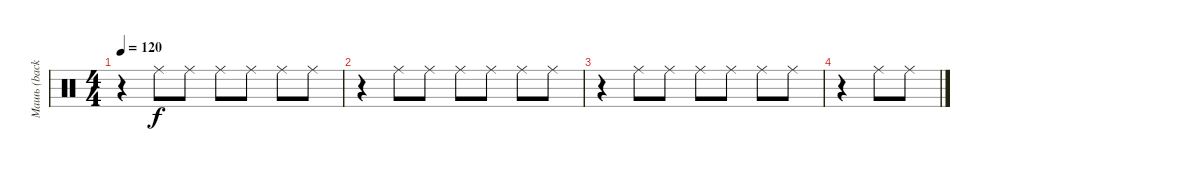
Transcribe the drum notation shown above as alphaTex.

\track ("Машь (backpercussion)" "Машь (back") {instrument percussion}
\staff {score}
\articulation defaults
\ts (4 4)
\tempo 120
\clef neutral
\ks c
r.4{dy f} "Ride (middle)".8 "Ride (middle)".8 "Ride (middle)".8 "Ride (middle)".8 "Ride (middle)".8 "Ride (middle)".8 |
r.4 "Ride (middle)".8 "Ride (middle)".8 "Ride (middle)".8 "Ride (middle)".8 "Ride (middle)".8 "Ride (middle)".8 |
r.4 "Ride (middle)".8 "Ride (middle)".8 "Ride (middle)".8 "Ride (middle)".8 "Ride (middle)".8 "Ride (middle)".8 |
r.4 "Ride (middle)".8 "Ride (middle)".8
